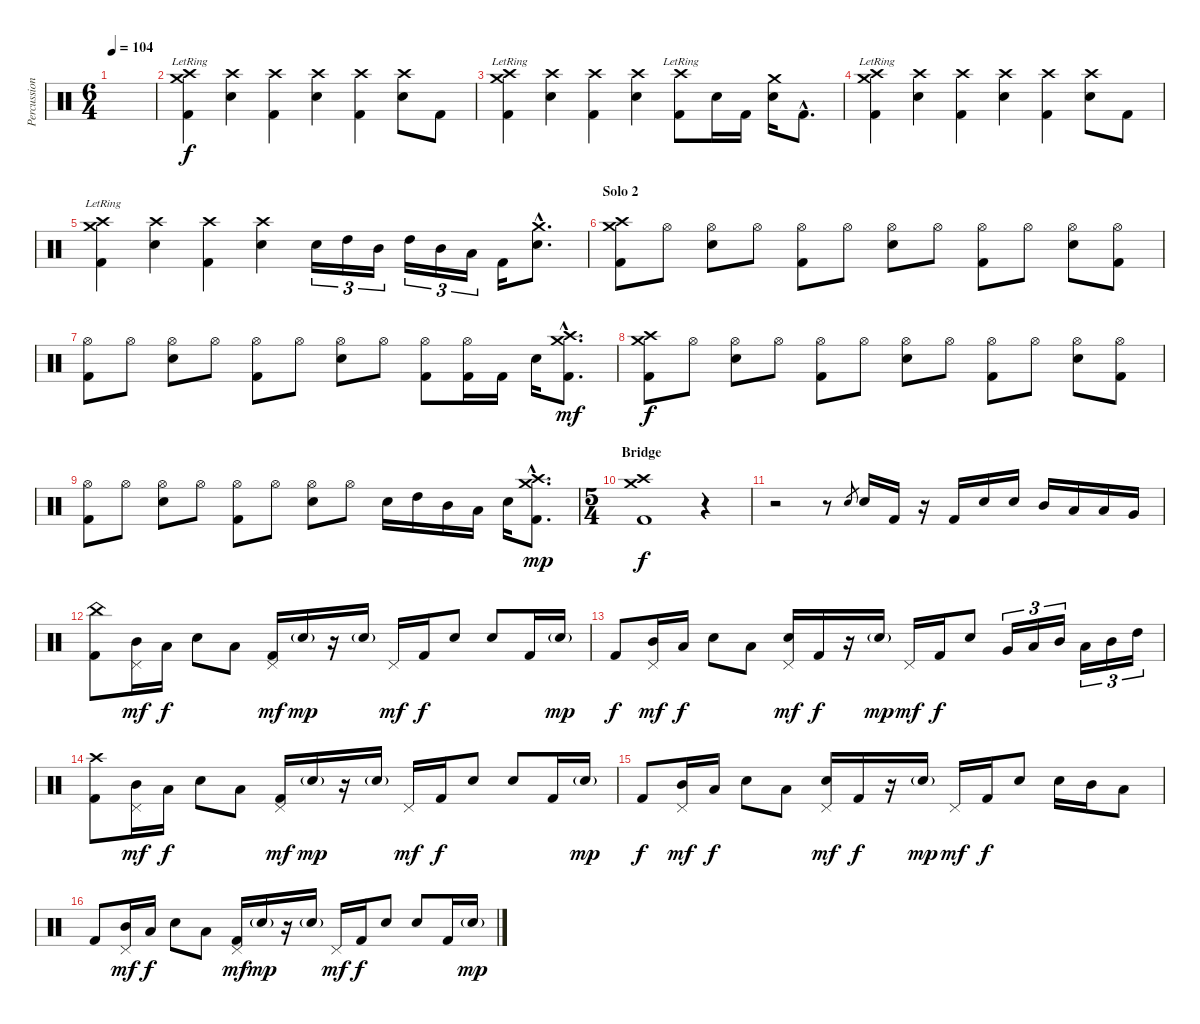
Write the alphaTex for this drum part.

\track ("Percussions" "Percussion") {instrument percussion}
\staff {score}
\articulation defaults
\ts (6 4)
\tempo 104
\clef neutral
\ks c
|
("Crash medium (hit)"{lr} "Crash high (hit)" "Kick (hit) 2").4 ("Crash high (hit)" "Electric Snare (hit)").4 ("Crash high (hit)" "Kick (hit) 2").4 ("Crash high (hit)" "Electric Snare (hit)").4 ("Crash high (hit)" "Kick (hit) 2").4 ("Crash high (hit)" "Electric Snare (hit)").8 "Kick (hit) 2".8 |
("Crash medium (hit)"{lr} "Crash high (hit)" "Kick (hit) 2").4 ("Crash high (hit)" "Electric Snare (hit)").4 ("Crash high (hit)" "Kick (hit) 2").4 ("Crash high (hit)" "Electric Snare (hit)").4 ("Crash high (hit)"{lr} "Kick (hit) 2").8 "Electric Snare (hit)".16 "Kick (hit) 2".16 ("Crash medium (hit)" "Electric Snare (hit)").16 "Kick (hit) 2"{hac}.8{d} |
("Crash medium (hit)"{lr} "Crash high (hit)" "Kick (hit) 2").4 ("Crash high (hit)" "Electric Snare (hit)").4 ("Crash high (hit)" "Kick (hit) 2").4 ("Crash high (hit)" "Electric Snare (hit)").4 ("Crash high (hit)" "Kick (hit) 2").4 ("Crash high (hit)" "Electric Snare (hit)").8 "Kick (hit) 2".8 |
("Crash medium (hit)"{lr} "Crash high (hit)" "Kick (hit) 2").4 ("Crash high (hit)" "Electric Snare (hit)").4 ("Crash high (hit)" "Kick (hit) 2").4 ("Crash high (hit)" "Electric Snare (hit)").4 "Electric Snare (hit)".16{tu (3 2)} "High Tom (hit)".16{tu (3 2)} "Mid Tom (hit)".16{tu (3 2)} "High Tom (hit)".16{tu (3 2)} "Mid Tom (hit)".16{tu (3 2)} "Low Tom (hit)".16{tu (3 2)} "Kick (hit) 2".16 ("Crash medium (hit)"{hac} "Electric Snare (hit)"{hac}).8{d} |
\section ("" "Solo 2")
("Crash high (hit)" "Crash medium (hit)" "Kick (hit) 2").8 "Hi-Hat (open)".8 ("Hi-Hat (open)" "Electric Snare (hit)").8 "Hi-Hat (open)".8 ("Hi-Hat (open)" "Kick (hit) 2").8 "Hi-Hat (open)".8 ("Hi-Hat (open)" "Electric Snare (hit)").8 "Hi-Hat (open)".8 ("Hi-Hat (open)" "Kick (hit) 2").8 "Hi-Hat (open)".8 ("Hi-Hat (open)" "Electric Snare (hit)").8 ("Hi-Hat (open)" "Kick (hit) 2").8 |
("Hi-Hat (open)" "Kick (hit) 2").8 "Hi-Hat (open)".8 ("Hi-Hat (open)" "Electric Snare (hit)").8 "Hi-Hat (open)".8 ("Hi-Hat (open)" "Kick (hit) 2").8 "Hi-Hat (open)".8 ("Hi-Hat (open)" "Electric Snare (hit)").8 "Hi-Hat (open)".8 ("Hi-Hat (open)" "Kick (hit) 2").8 ("Hi-Hat (open)" "Kick (hit) 2").16 "Kick (hit) 2".16 "Electric Snare (hit)".16 ("Crash high (hit)"{hac} "Crash medium (hit)"{hac} "Kick (hit) 2"{hac}).8{d dy mf} |
("Crash high (hit)" "Crash medium (hit)" "Kick (hit) 2").8{dy f} "Hi-Hat (open)".8 ("Hi-Hat (open)" "Electric Snare (hit)").8 "Hi-Hat (open)".8 ("Hi-Hat (open)" "Kick (hit) 2").8 "Hi-Hat (open)".8 ("Hi-Hat (open)" "Electric Snare (hit)").8 "Hi-Hat (open)".8 ("Hi-Hat (open)" "Kick (hit) 2").8 "Hi-Hat (open)".8 ("Hi-Hat (open)" "Electric Snare (hit)").8 ("Hi-Hat (open)" "Kick (hit) 2").8 |
("Hi-Hat (open)" "Kick (hit) 2").8 "Hi-Hat (open)".8 ("Hi-Hat (open)" "Electric Snare (hit)").8 "Hi-Hat (open)".8 ("Hi-Hat (open)" "Kick (hit) 2").8 "Hi-Hat (open)".8 ("Hi-Hat (open)" "Electric Snare (hit)").8 "Hi-Hat (open)".8 "Electric Snare (hit)".16 "High Tom (hit)".16 "Mid Tom (hit)".16 "Low Tom (hit)".16 "Electric Snare (hit)".16 ("Crash high (hit)"{hac} "Crash medium (hit)"{hac} "Kick (hit) 2"{hac}).8{d dy mp} |
\ts (5 4)
\section ("" "Bridge")
("Crash high (hit)" "Crash medium (hit)" "Kick (hit) 2").1{dy f} r.4 |
r.2 r.8 "Electric Snare (hit)".8{gr} "Electric Snare (hit)".16 "Kick (hit) 2".16 r.16 "Kick (hit) 2".16 "Electric Snare (hit)".16 "Electric Snare (hit)".16 "Mid Tom (hit)".16 "Low Tom (hit)".16 "Low Tom (hit)".16 "Very Low Tom (hit)".16 |
("China (hit)" "Kick (hit) 2").8 ("Pedal Hi-Hat (hit)" "Mid Tom (hit)").16{dy mf} "Low Tom (hit)".16{dy f} "Electric Snare (hit)".8 "Low Tom (hit)".8 ("Pedal Hi-Hat (hit)" "Kick (hit) 2").16{dy mf} "Electric Snare (hit)"{g}.16{dy mp} r.16 "Electric Snare (hit)"{g}.16 "Pedal Hi-Hat (hit)".16{dy mf} "Kick (hit) 2".16{dy f} "Electric Snare (hit)".8 "Electric Snare (hit)".8 "Kick (hit) 2".16 "Electric Snare (hit)"{g}.16{dy mp} |
"Kick (hit) 2".8{dy f} ("Pedal Hi-Hat (hit)" "Mid Tom (hit)").16{dy mf} "Low Tom (hit)".16{dy f} "Electric Snare (hit)".8 "Low Tom (hit)".8 ("Pedal Hi-Hat (hit)" "Electric Snare (hit)").16{dy mf} "Kick (hit) 2".16{dy f} r.16 "Electric Snare (hit)"{g}.16{dy mp} "Pedal Hi-Hat (hit)".16{dy mf} "Kick (hit) 2".16{dy f} "Electric Snare (hit)".8 "Very Low Tom (hit)".16{tu (3 2)} "Low Tom (hit)".16{tu (3 2)} "Mid Tom (hit)".16{tu (3 2)} "Low Tom (hit)".16{tu (3 2)} "Mid Tom (hit)".16{tu (3 2)} "High Tom (hit)".16{tu (3 2)} |
("Crash high (hit)" "Kick (hit) 2").8 ("Pedal Hi-Hat (hit)" "Mid Tom (hit)").16{dy mf} "Low Tom (hit)".16{dy f} "Electric Snare (hit)".8 "Low Tom (hit)".8 ("Pedal Hi-Hat (hit)" "Kick (hit) 2").16{dy mf} "Electric Snare (hit)"{g}.16{dy mp} r.16 "Electric Snare (hit)"{g}.16 "Pedal Hi-Hat (hit)".16{dy mf} "Kick (hit) 2".16{dy f} "Electric Snare (hit)".8 "Electric Snare (hit)".8 "Kick (hit) 2".16 "Electric Snare (hit)"{g}.16{dy mp} |
"Kick (hit) 2".8{dy f} ("Pedal Hi-Hat (hit)" "Mid Tom (hit)").16{dy mf} "Low Tom (hit)".16{dy f} "Electric Snare (hit)".8 "Low Tom (hit)".8 ("Pedal Hi-Hat (hit)" "Electric Snare (hit)").16{dy mf} "Kick (hit) 2".16{dy f} r.16 "Electric Snare (hit)"{g}.16{dy mp} "Pedal Hi-Hat (hit)".16{dy mf} "Kick (hit) 2".16{dy f} "Electric Snare (hit)".8 "Electric Snare (hit)".16 "Mid Tom (hit)".16 "Low Tom (hit)".8 |
"Kick (hit) 2".8 ("Pedal Hi-Hat (hit)" "Mid Tom (hit)").16{dy mf} "Low Tom (hit)".16{dy f} "Electric Snare (hit)".8 "Low Tom (hit)".8 ("Pedal Hi-Hat (hit)" "Kick (hit) 2").16{dy mf} "Electric Snare (hit)"{g}.16{dy mp} r.16 "Electric Snare (hit)"{g}.16 "Pedal Hi-Hat (hit)".16{dy mf} "Kick (hit) 2".16{dy f} "Electric Snare (hit)".8 "Electric Snare (hit)".8 "Kick (hit) 2".16 "Electric Snare (hit)"{g}.16{dy mp}
